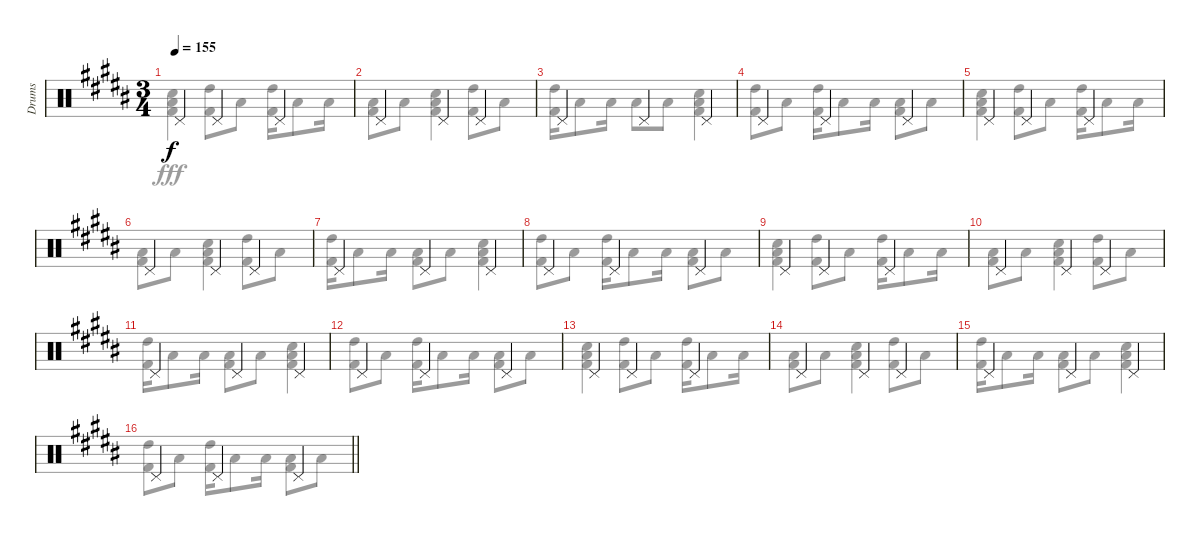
\track ("Drums" "Drums") {instrument percussion}
\staff {score}
\articulation defaults
\voice
\ts (3 4)
\tempo 155
\clef neutral
\ks b "Pedal Hi-Hat (hit)".4{dy f} "Pedal Hi-Hat (hit)".4 "Pedal Hi-Hat (hit)".4
|
"Pedal Hi-Hat (hit)".4 "Pedal Hi-Hat (hit)".4 "Pedal Hi-Hat (hit)".4 |
"Pedal Hi-Hat (hit)".4 "Pedal Hi-Hat (hit)".4 "Pedal Hi-Hat (hit)".4 |
"Pedal Hi-Hat (hit)".4 "Pedal Hi-Hat (hit)".4 "Pedal Hi-Hat (hit)".4 |
"Pedal Hi-Hat (hit)".4 "Pedal Hi-Hat (hit)".4 "Pedal Hi-Hat (hit)".4 |
"Pedal Hi-Hat (hit)".4 "Pedal Hi-Hat (hit)".4 "Pedal Hi-Hat (hit)".4 |
"Pedal Hi-Hat (hit)".4 "Pedal Hi-Hat (hit)".4 "Pedal Hi-Hat (hit)".4 |
"Pedal Hi-Hat (hit)".4 "Pedal Hi-Hat (hit)".4 "Pedal Hi-Hat (hit)".4 |
"Pedal Hi-Hat (hit)".4 "Pedal Hi-Hat (hit)".4 "Pedal Hi-Hat (hit)".4 |
"Pedal Hi-Hat (hit)".4 "Pedal Hi-Hat (hit)".4 "Pedal Hi-Hat (hit)".4 |
"Pedal Hi-Hat (hit)".4 "Pedal Hi-Hat (hit)".4 "Pedal Hi-Hat (hit)".4 |
"Pedal Hi-Hat (hit)".4 "Pedal Hi-Hat (hit)".4 "Pedal Hi-Hat (hit)".4 |
"Pedal Hi-Hat (hit)".4 "Pedal Hi-Hat (hit)".4 "Pedal Hi-Hat (hit)".4 |
"Pedal Hi-Hat (hit)".4 "Pedal Hi-Hat (hit)".4 "Pedal Hi-Hat (hit)".4 |
"Pedal Hi-Hat (hit)".4 "Pedal Hi-Hat (hit)".4 "Pedal Hi-Hat (hit)".4 |
\barLineRight lightlight "Pedal Hi-Hat (hit)".4 "Pedal Hi-Hat (hit)".4 "Pedal Hi-Hat (hit)".4
\voice
\clef neutral
\ottava regular
\simile none
\ks b
("Low Tom (hit)" "Snare (hit) 2" "Kick (hit) 2").4{dy fff} ("High Tom (hit)" "Kick (hit) 2").8 "Low Tom (hit)".8 ("High Tom (hit)" "Kick (hit) 2").16 "Low Tom (hit)".8 "Low Tom (hit)".16 |
("Low Tom (hit)" "Kick (hit) 2").8 "Low Tom (hit)".8 ("Low Tom (hit)" "Snare (hit) 2" "Kick (hit) 2").4 ("High Tom (hit)" "Kick (hit) 2").8 "Low Tom (hit)".8 |
("High Tom (hit)" "Kick (hit) 2").16 "Low Tom (hit)".8 "Low Tom (hit)".16 "Low Tom (hit)".8 "Low Tom (hit)".8 ("Low Tom (hit)" "Snare (hit) 2" "Kick (hit) 2").4 |
("High Tom (hit)" "Kick (hit) 2").8 "Low Tom (hit)".8 ("High Tom (hit)" "Kick (hit) 2").16 "Low Tom (hit)".8 "Low Tom (hit)".16 ("Low Tom (hit)" "Kick (hit) 2").8 "Low Tom (hit)".8 |
("Low Tom (hit)" "Snare (hit) 2" "Kick (hit) 2").4 ("High Tom (hit)" "Kick (hit) 2").8 "Low Tom (hit)".8 ("High Tom (hit)" "Kick (hit) 2").16 "Low Tom (hit)".8 "Low Tom (hit)".16 |
("Low Tom (hit)" "Kick (hit) 2").8 "Low Tom (hit)".8 ("Low Tom (hit)" "Snare (hit) 2" "Kick (hit) 2").4 ("High Tom (hit)" "Kick (hit) 2").8 "Low Tom (hit)".8 |
("High Tom (hit)" "Kick (hit) 2").16 "Low Tom (hit)".8 "Low Tom (hit)".16 ("Low Tom (hit)" "Kick (hit) 2").8 "Low Tom (hit)".8 ("Low Tom (hit)" "Snare (hit) 2" "Kick (hit) 2").4 |
("High Tom (hit)" "Kick (hit) 2").8 "Low Tom (hit)".8 ("High Tom (hit)" "Kick (hit) 2").16 "Low Tom (hit)".8 "Low Tom (hit)".16 ("Low Tom (hit)" "Kick (hit) 2").8 "Low Tom (hit)".8 |
("Low Tom (hit)" "Snare (hit) 2" "Kick (hit) 2").4 ("High Tom (hit)" "Kick (hit) 2").8 "Low Tom (hit)".8 ("High Tom (hit)" "Kick (hit) 2").16 "Low Tom (hit)".8 "Low Tom (hit)".16 |
("Low Tom (hit)" "Kick (hit) 2").8 "Low Tom (hit)".8 ("Low Tom (hit)" "Snare (hit) 2" "Kick (hit) 2").4 ("High Tom (hit)" "Kick (hit) 2").8 "Low Tom (hit)".8 |
("High Tom (hit)" "Kick (hit) 2").16 "Low Tom (hit)".8 "Low Tom (hit)".16 ("Low Tom (hit)" "Kick (hit) 2").8 "Low Tom (hit)".8 ("Low Tom (hit)" "Snare (hit) 2" "Kick (hit) 2").4 |
("High Tom (hit)" "Kick (hit) 2").8 "Low Tom (hit)".8 ("High Tom (hit)" "Kick (hit) 2").16 "Low Tom (hit)".8 "Low Tom (hit)".16 ("Low Tom (hit)" "Kick (hit) 2").8 "Low Tom (hit)".8 |
("Low Tom (hit)" "Snare (hit) 2" "Kick (hit) 2").4 ("High Tom (hit)" "Kick (hit) 2").8 "Low Tom (hit)".8 ("High Tom (hit)" "Kick (hit) 2").16 "Low Tom (hit)".8 "Low Tom (hit)".16 |
("Low Tom (hit)" "Kick (hit) 2").8 "Low Tom (hit)".8 ("Low Tom (hit)" "Snare (hit) 2" "Kick (hit) 2").4 ("High Tom (hit)" "Kick (hit) 2").8 "Low Tom (hit)".8 |
("High Tom (hit)" "Kick (hit) 2").16 "Low Tom (hit)".8 "Low Tom (hit)".16 ("Low Tom (hit)" "Kick (hit) 2").8 "Low Tom (hit)".8 ("Low Tom (hit)" "Snare (hit) 2" "Kick (hit) 2").4 |
\barLineRight lightlight
("High Tom (hit)" "Kick (hit) 2").8 "Low Tom (hit)".8 ("High Tom (hit)" "Kick (hit) 2").16 "Low Tom (hit)".8 "Low Tom (hit)".16 ("Low Tom (hit)" "Kick (hit) 2").8 "Low Tom (hit)".8
